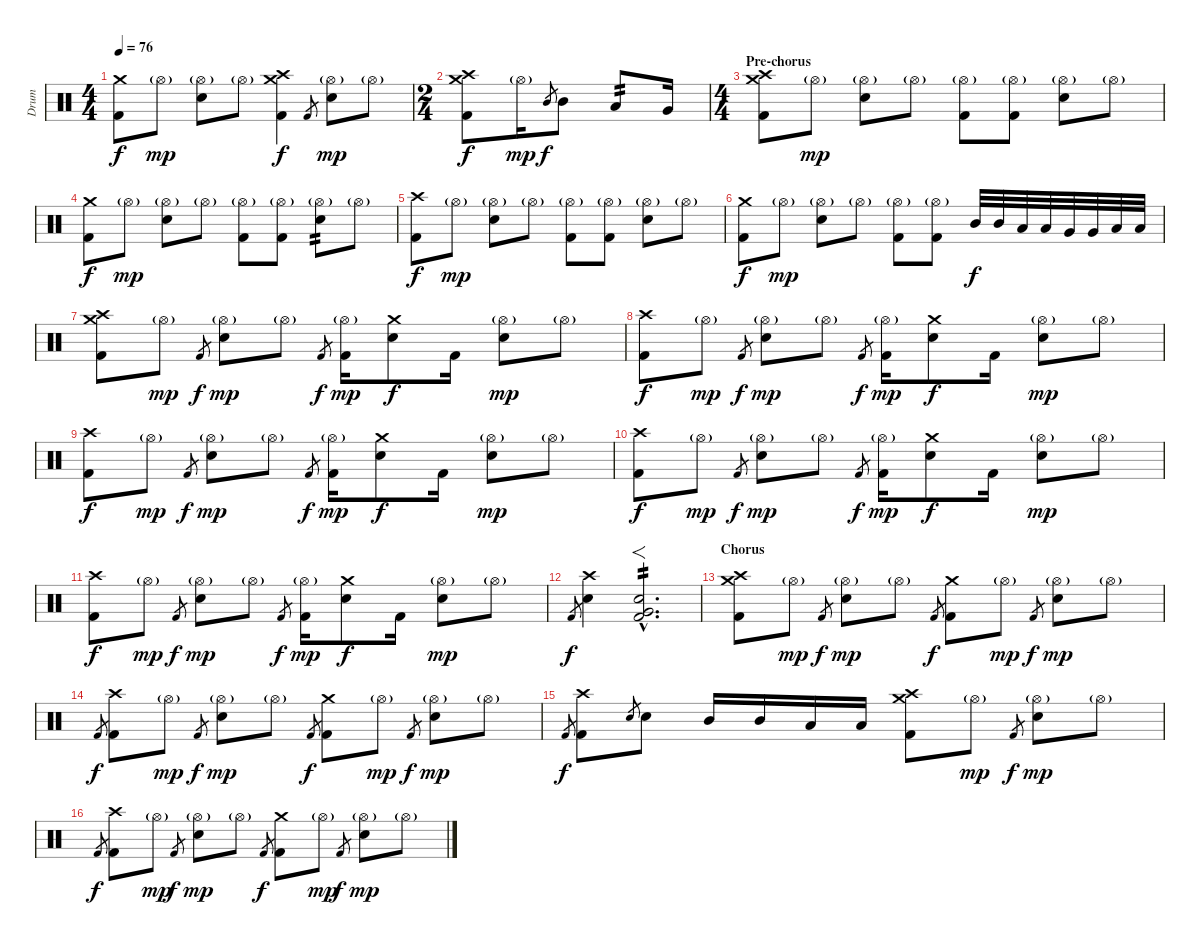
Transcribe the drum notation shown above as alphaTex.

\track ("Drum" "Drum") {instrument percussion}
\staff {score}
\articulation defaults
\ts (4 4)
\tempo 76
\clef neutral
\ks c
("Kick (hit) 2" "Crash medium (hit)").8{dy f} "Hi-Hat (open)"{g}.8{dy mp} ("Hi-Hat (open)"{g} "Electric Snare (hit)").8 "Hi-Hat (open)"{g}.8 ("Kick (hit) 2" "Crash medium (hit)" "Crash high (hit)").4{dy f} "Kick (hit) 2".8{gr} ("Hi-Hat (open)"{g} "Electric Snare (hit)").8{dy mp} "Hi-Hat (open)"{g}.8 |
\ts (2 4)
("Kick (hit) 2" "Crash medium (hit)" "Crash high (hit)").8{dy f} "Hi-Hat (open)"{g}.16{dy mp} "Mid Tom (hit)".8{gr dy f} "Mid Tom (hit)".8 "Low Tom (hit)".8{tp 2} "Very Low Tom (hit)".16 |
\ts (4 4)
\section ("" "Pre-chorus")
("Kick (hit) 2" "Crash medium (hit)" "Crash high (hit)").8 "Hi-Hat (open)"{g}.8{dy mp} ("Hi-Hat (open)"{g} "Electric Snare (hit)").8 "Hi-Hat (open)"{g}.8 ("Hi-Hat (open)"{g} "Kick (hit) 2").8 ("Hi-Hat (open)"{g} "Kick (hit) 2").8 ("Hi-Hat (open)"{g} "Electric Snare (hit)").8 "Hi-Hat (open)"{g}.8 |
("Kick (hit) 2" "Crash medium (hit)").8{dy f} "Hi-Hat (open)"{g}.8{dy mp} ("Hi-Hat (open)"{g} "Electric Snare (hit)").8 "Hi-Hat (open)"{g}.8 ("Hi-Hat (open)"{g} "Kick (hit) 2").8 ("Hi-Hat (open)"{g} "Kick (hit) 2").8 ("Hi-Hat (open)"{g} "Electric Snare (hit)").8{tp 2} "Hi-Hat (open)"{g}.8 |
("Kick (hit) 2" "Crash high (hit)").8{dy f} "Hi-Hat (open)"{g}.8{dy mp} ("Hi-Hat (open)"{g} "Electric Snare (hit)").8 "Hi-Hat (open)"{g}.8 ("Hi-Hat (open)"{g} "Kick (hit) 2").8 ("Hi-Hat (open)"{g} "Kick (hit) 2").8 ("Hi-Hat (open)"{g} "Electric Snare (hit)").8 "Hi-Hat (open)"{g}.8 |
("Kick (hit) 2" "Crash medium (hit)").8{dy f} "Hi-Hat (open)"{g}.8{dy mp} ("Hi-Hat (open)"{g} "Electric Snare (hit)").8 "Hi-Hat (open)"{g}.8 ("Hi-Hat (open)"{g} "Kick (hit) 2").8 ("Hi-Hat (open)"{g} "Kick (hit) 2").8 "Mid Tom (hit)".32{dy f} "Mid Tom (hit)".32 "Low Tom (hit)".32 "Low Tom (hit)".32 "Very Low Tom (hit)".32 "Very Low Tom (hit)".32 "Low Floor Tom (hit)".32 "Low Floor Tom (hit)".32 |
("Kick (hit) 2" "Crash medium (hit)" "Crash high (hit)").8 "Hi-Hat (open)"{g}.8{dy mp} "Kick (hit) 2".8{gr dy f} ("Hi-Hat (open)"{g} "Electric Snare (hit)").8{dy mp} "Hi-Hat (open)"{g}.8 "Kick (hit) 2".8{gr dy f} ("Hi-Hat (open)"{g} "Kick (hit) 2").16{dy mp} ("Electric Snare (hit)" "Crash medium (hit)").8{dy f} "Kick (hit) 2".16 ("Hi-Hat (open)"{g} "Electric Snare (hit)").8{dy mp} "Hi-Hat (open)"{g}.8 |
("Kick (hit) 2" "Crash high (hit)").8{dy f} "Hi-Hat (open)"{g}.8{dy mp} "Kick (hit) 2".8{gr dy f} ("Hi-Hat (open)"{g} "Electric Snare (hit)").8{dy mp} "Hi-Hat (open)"{g}.8 "Kick (hit) 2".8{gr dy f} ("Hi-Hat (open)"{g} "Kick (hit) 2").16{dy mp} ("Electric Snare (hit)" "Crash medium (hit)").8{dy f} "Kick (hit) 2".16 ("Hi-Hat (open)"{g} "Electric Snare (hit)").8{dy mp} "Hi-Hat (open)"{g}.8 |
("Kick (hit) 2" "Crash high (hit)").8{dy f} "Hi-Hat (open)"{g}.8{dy mp} "Kick (hit) 2".8{gr dy f} ("Hi-Hat (open)"{g} "Electric Snare (hit)").8{dy mp} "Hi-Hat (open)"{g}.8 "Kick (hit) 2".8{gr dy f} ("Hi-Hat (open)"{g} "Kick (hit) 2").16{dy mp} ("Electric Snare (hit)" "Crash medium (hit)").8{dy f} "Kick (hit) 2".16 ("Hi-Hat (open)"{g} "Electric Snare (hit)").8{dy mp} "Hi-Hat (open)"{g}.8 |
("Kick (hit) 2" "Crash high (hit)").8{dy f} "Hi-Hat (open)"{g}.8{dy mp} "Kick (hit) 2".8{gr dy f} ("Hi-Hat (open)"{g} "Electric Snare (hit)").8{dy mp} "Hi-Hat (open)"{g}.8 "Kick (hit) 2".8{gr dy f} ("Hi-Hat (open)"{g} "Kick (hit) 2").16{dy mp} ("Electric Snare (hit)" "Crash medium (hit)").8{dy f} "Kick (hit) 2".16 ("Hi-Hat (open)"{g} "Electric Snare (hit)").8{dy mp} "Hi-Hat (open)"{g}.8 |
("Kick (hit) 2" "Crash high (hit)").8{dy f} "Hi-Hat (open)"{g}.8{dy mp} "Kick (hit) 2".8{gr dy f} ("Hi-Hat (open)"{g} "Electric Snare (hit)").8{dy mp} "Hi-Hat (open)"{g}.8 "Kick (hit) 2".8{gr dy f} ("Hi-Hat (open)"{g} "Kick (hit) 2").16{dy mp} ("Electric Snare (hit)" "Crash medium (hit)").8{dy f} "Kick (hit) 2".16 ("Hi-Hat (open)"{g} "Electric Snare (hit)").8{dy mp} "Hi-Hat (open)"{g}.8 |
"Kick (hit) 2".8{gr dy f} ("Electric Snare (hit)" "Crash high (hit)").4 ("Very Low Tom (hit)"{hac} "Electric Snare (hit)"{hac} "Kick (hit) 2"{hac}).2{f d tp 2} |
\section ("" "Chorus")
("Kick (hit) 2" "Crash medium (hit)" "Crash high (hit)").8 "Hi-Hat (open)"{g}.8{dy mp} "Kick (hit) 2".8{gr dy f} ("Hi-Hat (open)"{g} "Electric Snare (hit)").8{dy mp} "Hi-Hat (open)"{g}.8 "Kick (hit) 2".8{gr dy f} ("Kick (hit) 2" "Crash medium (hit)").8 "Hi-Hat (open)"{g}.8{dy mp} "Kick (hit) 2".8{gr dy f} ("Hi-Hat (open)"{g} "Electric Snare (hit)").8{dy mp} "Hi-Hat (open)"{g}.8 |
"Kick (hit) 2".8{gr dy f} ("Kick (hit) 2" "Crash high (hit)").8 "Hi-Hat (open)"{g}.8{dy mp} "Kick (hit) 2".8{gr dy f} ("Hi-Hat (open)"{g} "Electric Snare (hit)").8{dy mp} "Hi-Hat (open)"{g}.8 "Kick (hit) 2".8{gr dy f} ("Kick (hit) 2" "Crash medium (hit)").8 "Hi-Hat (open)"{g}.8{dy mp} "Kick (hit) 2".8{gr dy f} ("Hi-Hat (open)"{g} "Electric Snare (hit)").8{dy mp} "Hi-Hat (open)"{g}.8 |
"Kick (hit) 2".8{gr dy f} ("Kick (hit) 2" "Crash high (hit)").8 "Electric Snare (hit)".8{gr} "Electric Snare (hit)".8 "Mid Tom (hit)".16 "Mid Tom (hit)".16 "Low Tom (hit)".16 "Low Tom (hit)".16 ("Kick (hit) 2" "Crash medium (hit)" "Crash high (hit)").8 "Hi-Hat (open)"{g}.8{dy mp} "Kick (hit) 2".8{gr dy f} ("Hi-Hat (open)"{g} "Electric Snare (hit)").8{dy mp} "Hi-Hat (open)"{g}.8 |
"Kick (hit) 2".8{gr dy f} ("Kick (hit) 2" "Crash high (hit)").8 "Hi-Hat (open)"{g}.8{dy mp} "Kick (hit) 2".8{gr dy f} ("Hi-Hat (open)"{g} "Electric Snare (hit)").8{dy mp} "Hi-Hat (open)"{g}.8 "Kick (hit) 2".8{gr dy f} ("Kick (hit) 2" "Crash medium (hit)").8 "Hi-Hat (open)"{g}.8{dy mp} "Kick (hit) 2".8{gr dy f} ("Hi-Hat (open)"{g} "Electric Snare (hit)").8{dy mp} "Hi-Hat (open)"{g}.8
